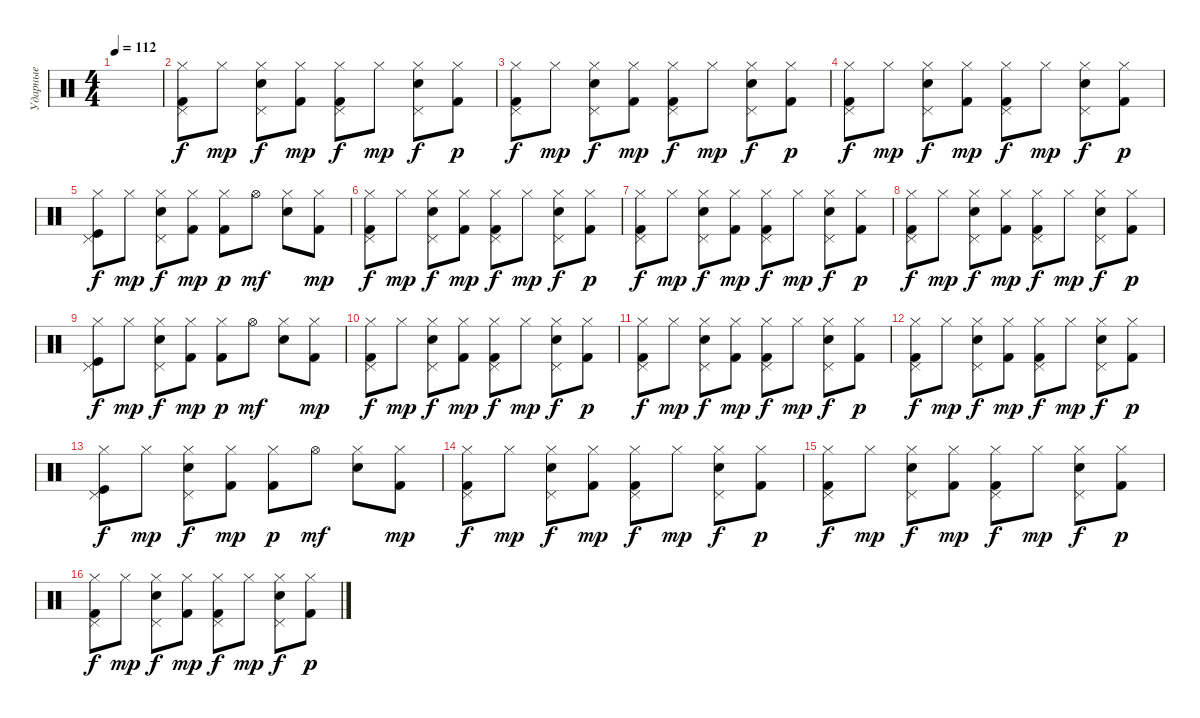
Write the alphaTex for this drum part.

\track ("Ударные" "Ударные") {instrument percussion}
\staff {score}
\articulation defaults
\ts (4 4)
\tempo 112
\clef neutral
\ks c
|
("Pedal Hi-Hat (hit)" "Hi-Hat (closed)" "Kick (hit) 2").8 "Hi-Hat (closed)".8{dy mp} ("Pedal Hi-Hat (hit)" "Hi-Hat (closed)" "Electric Snare (hit)").8{dy f} ("Hi-Hat (closed)" "Kick (hit) 2").8{dy mp} ("Pedal Hi-Hat (hit)" "Hi-Hat (closed)" "Kick (hit) 2").8{dy f} "Hi-Hat (closed)".8{dy mp} ("Pedal Hi-Hat (hit)" "Hi-Hat (closed)" "Electric Snare (hit)").8{dy f} ("Hi-Hat (closed)" "Kick (hit) 2").8{dy p} |
("Pedal Hi-Hat (hit)" "Hi-Hat (closed)" "Kick (hit) 2").8{dy f} "Hi-Hat (closed)".8{dy mp} ("Pedal Hi-Hat (hit)" "Hi-Hat (closed)" "Electric Snare (hit)").8{dy f} ("Hi-Hat (closed)" "Kick (hit) 2").8{dy mp} ("Pedal Hi-Hat (hit)" "Hi-Hat (closed)" "Kick (hit) 2").8{dy f} "Hi-Hat (closed)".8{dy mp} ("Pedal Hi-Hat (hit)" "Hi-Hat (closed)" "Electric Snare (hit)").8{dy f} ("Hi-Hat (closed)" "Kick (hit) 2").8{dy p} |
("Pedal Hi-Hat (hit)" "Hi-Hat (closed)" "Kick (hit) 2").8{dy f} "Hi-Hat (closed)".8{dy mp} ("Pedal Hi-Hat (hit)" "Hi-Hat (closed)" "Electric Snare (hit)").8{dy f} ("Hi-Hat (closed)" "Kick (hit) 2").8{dy mp} ("Pedal Hi-Hat (hit)" "Hi-Hat (closed)" "Kick (hit) 2").8{dy f} "Hi-Hat (closed)".8{dy mp} ("Pedal Hi-Hat (hit)" "Hi-Hat (closed)" "Electric Snare (hit)").8{dy f} ("Hi-Hat (closed)" "Kick (hit) 2").8{dy p} |
("Pedal Hi-Hat (hit)" "Hi-Hat (closed)" "Kick (hit)").8{dy f} "Hi-Hat (closed)".8{dy mp} ("Pedal Hi-Hat (hit)" "Hi-Hat (closed)" "Electric Snare (hit)").8{dy f} ("Hi-Hat (closed)" "Kick (hit) 2").8{dy mp} ("Hi-Hat (closed)" "Kick (hit) 2").8{dy p} "Hi-Hat (open)".8{dy mf} ("Hi-Hat (closed)" "Electric Snare (hit)").8 ("Hi-Hat (closed)" "Kick (hit) 2").8{dy mp} |
("Pedal Hi-Hat (hit)" "Hi-Hat (closed)" "Kick (hit) 2").8{dy f} "Hi-Hat (closed)".8{dy mp} ("Pedal Hi-Hat (hit)" "Hi-Hat (closed)" "Electric Snare (hit)").8{dy f} ("Hi-Hat (closed)" "Kick (hit) 2").8{dy mp} ("Pedal Hi-Hat (hit)" "Hi-Hat (closed)" "Kick (hit) 2").8{dy f} "Hi-Hat (closed)".8{dy mp} ("Pedal Hi-Hat (hit)" "Hi-Hat (closed)" "Electric Snare (hit)").8{dy f} ("Hi-Hat (closed)" "Kick (hit) 2").8{dy p} |
("Pedal Hi-Hat (hit)" "Hi-Hat (closed)" "Kick (hit) 2").8{dy f} "Hi-Hat (closed)".8{dy mp} ("Pedal Hi-Hat (hit)" "Hi-Hat (closed)" "Electric Snare (hit)").8{dy f} ("Hi-Hat (closed)" "Kick (hit) 2").8{dy mp} ("Pedal Hi-Hat (hit)" "Hi-Hat (closed)" "Kick (hit) 2").8{dy f} "Hi-Hat (closed)".8{dy mp} ("Pedal Hi-Hat (hit)" "Hi-Hat (closed)" "Electric Snare (hit)").8{dy f} ("Hi-Hat (closed)" "Kick (hit) 2").8{dy p} |
("Pedal Hi-Hat (hit)" "Hi-Hat (closed)" "Kick (hit) 2").8{dy f} "Hi-Hat (closed)".8{dy mp} ("Pedal Hi-Hat (hit)" "Hi-Hat (closed)" "Electric Snare (hit)").8{dy f} ("Hi-Hat (closed)" "Kick (hit) 2").8{dy mp} ("Pedal Hi-Hat (hit)" "Hi-Hat (closed)" "Kick (hit) 2").8{dy f} "Hi-Hat (closed)".8{dy mp} ("Pedal Hi-Hat (hit)" "Hi-Hat (closed)" "Electric Snare (hit)").8{dy f} ("Hi-Hat (closed)" "Kick (hit) 2").8{dy p} |
("Pedal Hi-Hat (hit)" "Hi-Hat (closed)" "Kick (hit)").8{dy f} "Hi-Hat (closed)".8{dy mp} ("Pedal Hi-Hat (hit)" "Hi-Hat (closed)" "Electric Snare (hit)").8{dy f} ("Hi-Hat (closed)" "Kick (hit) 2").8{dy mp} ("Hi-Hat (closed)" "Kick (hit) 2").8{dy p} "Hi-Hat (open)".8{dy mf} ("Hi-Hat (closed)" "Electric Snare (hit)").8 ("Hi-Hat (closed)" "Kick (hit) 2").8{dy mp} |
("Pedal Hi-Hat (hit)" "Hi-Hat (closed)" "Kick (hit) 2").8{dy f} "Hi-Hat (closed)".8{dy mp} ("Pedal Hi-Hat (hit)" "Hi-Hat (closed)" "Electric Snare (hit)").8{dy f} ("Hi-Hat (closed)" "Kick (hit) 2").8{dy mp} ("Pedal Hi-Hat (hit)" "Hi-Hat (closed)" "Kick (hit) 2").8{dy f} "Hi-Hat (closed)".8{dy mp} ("Pedal Hi-Hat (hit)" "Hi-Hat (closed)" "Electric Snare (hit)").8{dy f} ("Hi-Hat (closed)" "Kick (hit) 2").8{dy p} |
("Pedal Hi-Hat (hit)" "Hi-Hat (closed)" "Kick (hit) 2").8{dy f} "Hi-Hat (closed)".8{dy mp} ("Pedal Hi-Hat (hit)" "Hi-Hat (closed)" "Electric Snare (hit)").8{dy f} ("Hi-Hat (closed)" "Kick (hit) 2").8{dy mp} ("Pedal Hi-Hat (hit)" "Hi-Hat (closed)" "Kick (hit) 2").8{dy f} "Hi-Hat (closed)".8{dy mp} ("Pedal Hi-Hat (hit)" "Hi-Hat (closed)" "Electric Snare (hit)").8{dy f} ("Hi-Hat (closed)" "Kick (hit) 2").8{dy p} |
("Pedal Hi-Hat (hit)" "Hi-Hat (closed)" "Kick (hit) 2").8{dy f} "Hi-Hat (closed)".8{dy mp} ("Pedal Hi-Hat (hit)" "Hi-Hat (closed)" "Electric Snare (hit)").8{dy f} ("Hi-Hat (closed)" "Kick (hit) 2").8{dy mp} ("Pedal Hi-Hat (hit)" "Hi-Hat (closed)" "Kick (hit) 2").8{dy f} "Hi-Hat (closed)".8{dy mp} ("Pedal Hi-Hat (hit)" "Hi-Hat (closed)" "Electric Snare (hit)").8{dy f} ("Hi-Hat (closed)" "Kick (hit) 2").8{dy p} |
("Pedal Hi-Hat (hit)" "Hi-Hat (closed)" "Kick (hit)").8{dy f} "Hi-Hat (closed)".8{dy mp} ("Pedal Hi-Hat (hit)" "Hi-Hat (closed)" "Electric Snare (hit)").8{dy f} ("Hi-Hat (closed)" "Kick (hit) 2").8{dy mp} ("Hi-Hat (closed)" "Kick (hit) 2").8{dy p} "Hi-Hat (open)".8{dy mf} ("Hi-Hat (closed)" "Electric Snare (hit)").8 ("Hi-Hat (closed)" "Kick (hit) 2").8{dy mp} |
("Pedal Hi-Hat (hit)" "Hi-Hat (closed)" "Kick (hit) 2").8{dy f} "Hi-Hat (closed)".8{dy mp} ("Pedal Hi-Hat (hit)" "Hi-Hat (closed)" "Electric Snare (hit)").8{dy f} ("Hi-Hat (closed)" "Kick (hit) 2").8{dy mp} ("Pedal Hi-Hat (hit)" "Hi-Hat (closed)" "Kick (hit) 2").8{dy f} "Hi-Hat (closed)".8{dy mp} ("Pedal Hi-Hat (hit)" "Hi-Hat (closed)" "Electric Snare (hit)").8{dy f} ("Hi-Hat (closed)" "Kick (hit) 2").8{dy p} |
("Pedal Hi-Hat (hit)" "Hi-Hat (closed)" "Kick (hit) 2").8{dy f} "Hi-Hat (closed)".8{dy mp} ("Pedal Hi-Hat (hit)" "Hi-Hat (closed)" "Electric Snare (hit)").8{dy f} ("Hi-Hat (closed)" "Kick (hit) 2").8{dy mp} ("Pedal Hi-Hat (hit)" "Hi-Hat (closed)" "Kick (hit) 2").8{dy f} "Hi-Hat (closed)".8{dy mp} ("Pedal Hi-Hat (hit)" "Hi-Hat (closed)" "Electric Snare (hit)").8{dy f} ("Hi-Hat (closed)" "Kick (hit) 2").8{dy p} |
("Pedal Hi-Hat (hit)" "Hi-Hat (closed)" "Kick (hit) 2").8{dy f} "Hi-Hat (closed)".8{dy mp} ("Pedal Hi-Hat (hit)" "Hi-Hat (closed)" "Electric Snare (hit)").8{dy f} ("Hi-Hat (closed)" "Kick (hit) 2").8{dy mp} ("Pedal Hi-Hat (hit)" "Hi-Hat (closed)" "Kick (hit) 2").8{dy f} "Hi-Hat (closed)".8{dy mp} ("Pedal Hi-Hat (hit)" "Hi-Hat (closed)" "Electric Snare (hit)").8{dy f} ("Hi-Hat (closed)" "Kick (hit) 2").8{dy p}
